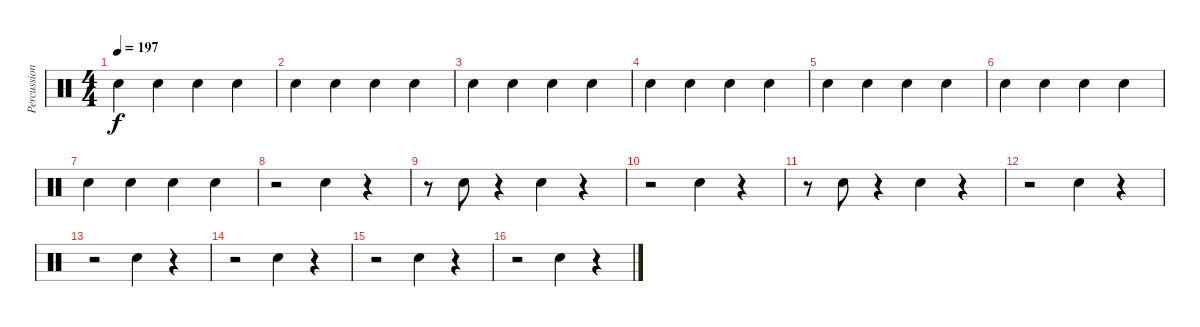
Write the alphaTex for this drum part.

\track ("Percussion" "Percussion") {instrument percussion}
\staff {score}
\articulation defaults
\ts (4 4)
\tempo 197
\clef neutral
\ks c "Electric Snare (hit)".4{dy f} "Electric Snare (hit)".4 "Electric Snare (hit)".4 "Electric Snare (hit)".4
|
"Electric Snare (hit)".4 "Electric Snare (hit)".4 "Electric Snare (hit)".4 "Electric Snare (hit)".4 |
"Electric Snare (hit)".4 "Electric Snare (hit)".4 "Electric Snare (hit)".4 "Electric Snare (hit)".4 |
"Electric Snare (hit)".4 "Electric Snare (hit)".4 "Electric Snare (hit)".4 "Electric Snare (hit)".4 |
"Electric Snare (hit)".4 "Electric Snare (hit)".4 "Electric Snare (hit)".4 "Electric Snare (hit)".4 |
"Electric Snare (hit)".4 "Electric Snare (hit)".4 "Electric Snare (hit)".4 "Electric Snare (hit)".4 |
"Electric Snare (hit)".4 "Electric Snare (hit)".4 "Electric Snare (hit)".4 "Electric Snare (hit)".4 |
r.2 "Electric Snare (hit)".4 r.4 |
r.8 "Electric Snare (hit)".8 r.4 "Electric Snare (hit)".4 r.4 |
r.2 "Electric Snare (hit)".4 r.4 |
r.8 "Electric Snare (hit)".8 r.4 "Electric Snare (hit)".4 r.4 |
r.2 "Electric Snare (hit)".4 r.4 |
r.2 "Electric Snare (hit)".4 r.4 |
r.2 "Electric Snare (hit)".4 r.4 |
r.2 "Electric Snare (hit)".4 r.4 |
r.2 "Electric Snare (hit)".4 r.4
